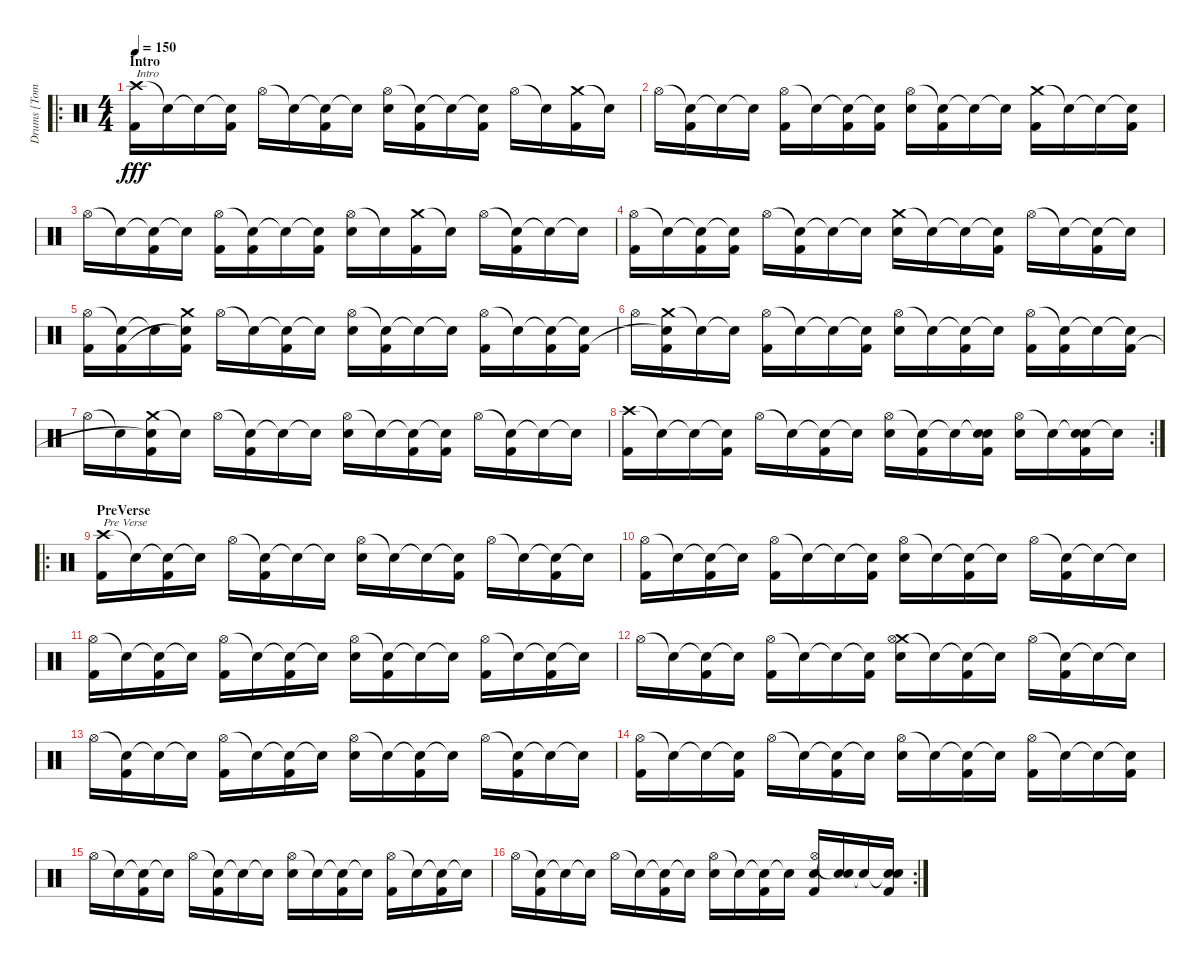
\track ("Drums [Tomas Haake]" "Drums [Tom") {instrument percussion}
\staff {score}
\articulation defaults
\ro
\ts (4 4)
\section ("" "Intro")
\tempo 150
\clef neutral
\ks c
("Crash high (hit)" "Kick (hit) 2").16{txt "Intro" dy fff} "Snare (hit)"{t}.16 "Snare (hit)"{t}.16 ("Snare (hit)"{t} "Kick (hit) 2").16 "Hi-Hat (open)".16 "Snare (hit)"{t}.16 ("Snare (hit)"{t} "Kick (hit) 2").16 "Snare (hit)"{t}.16 ("Hi-Hat (open)" "Electric Snare (hit)").16 ("Snare (hit)"{t} "Kick (hit) 2").16 "Snare (hit)"{t}.16 ("Snare (hit)"{t} "Kick (hit) 2").16 "Hi-Hat (open)".16 "Snare (hit)"{t}.16 ("Crash medium (hit)" "Kick (hit) 2").16 "Snare (hit)"{t}.16 |
"Hi-Hat (open)".16 ("Snare (hit)"{t} "Kick (hit) 2").16 "Snare (hit)"{t}.16 "Snare (hit)"{t}.16 ("Hi-Hat (open)" "Kick (hit) 2").16 "Snare (hit)"{t}.16 ("Snare (hit)"{t} "Kick (hit) 2").16 ("Snare (hit)"{t} "Kick (hit) 2").16 ("Hi-Hat (open)" "Electric Snare (hit)").16 ("Snare (hit)"{t} "Kick (hit) 2").16 "Snare (hit)"{t}.16 "Snare (hit)"{t}.16 ("Crash medium (hit)" "Kick (hit) 2").16 "Snare (hit)"{t}.16 "Snare (hit)"{t}.16 ("Snare (hit)"{t} "Kick (hit) 2").16 |
"Hi-Hat (open)".16 "Snare (hit)"{t}.16 ("Snare (hit)"{t} "Kick (hit) 2").16 "Snare (hit)"{t}.16 ("Hi-Hat (open)" "Kick (hit) 2").16 ("Snare (hit)"{t} "Kick (hit) 2").16 "Snare (hit)"{t}.16 ("Snare (hit)"{t} "Kick (hit) 2").16 ("Hi-Hat (open)" "Electric Snare (hit)").16 "Snare (hit)"{t}.16 ("Crash medium (hit)" "Kick (hit) 2").16 "Snare (hit)"{t}.16 "Hi-Hat (open)".16 ("Snare (hit)"{t} "Kick (hit) 2").16 "Snare (hit)"{t}.16 "Snare (hit)"{t}.16 |
("Hi-Hat (open)" "Kick (hit) 2").16 "Snare (hit)"{t}.16 ("Snare (hit)"{t} "Kick (hit) 2").16 ("Snare (hit)"{t} "Kick (hit) 2").16 "Hi-Hat (open)".16 ("Snare (hit)"{t} "Kick (hit) 2").16 "Snare (hit)"{t}.16 "Snare (hit)"{t}.16 ("Crash medium (hit)" "Electric Snare (hit)").16 "Snare (hit)"{t}.16 "Snare (hit)"{t}.16 ("Snare (hit)"{t} "Kick (hit) 2").16 "Hi-Hat (open)".16 "Snare (hit)"{t}.16 ("Snare (hit)"{t} "Kick (hit) 2").16 "Snare (hit)"{t}.16 |
("Hi-Hat (open)" "Kick (hit) 2").16 ("Snare (hit)"{t} "Kick (hit) 2").16 "Snare (hit)"{t}.16 ("Crash medium (hit)" "Snare (hit)"{t} "Kick (hit) 2").16 "Hi-Hat (open)".16 "Snare (hit)"{t}.16 ("Snare (hit)"{t} "Kick (hit) 2").16 "Snare (hit)"{t}.16 ("Hi-Hat (open)" "Electric Snare (hit)").16 ("Snare (hit)"{t} "Kick (hit) 2").16 "Snare (hit)"{t}.16 "Snare (hit)"{t}.16 ("Hi-Hat (open)" "Kick (hit) 2").16 "Snare (hit)"{t}.16 ("Snare (hit)"{t} "Kick (hit) 2").16 ("Snare (hit)"{t} "Kick (hit) 2").16 |
"Hi-Hat (open)".16 ("Crash medium (hit)" "Snare (hit)"{t} "Kick (hit) 2").16 "Snare (hit)"{t}.16 "Snare (hit)"{t}.16 ("Hi-Hat (open)" "Kick (hit) 2").16 "Snare (hit)"{t}.16 "Snare (hit)"{t}.16 ("Snare (hit)"{t} "Kick (hit) 2").16 ("Hi-Hat (open)" "Electric Snare (hit)").16 "Snare (hit)"{t}.16 ("Snare (hit)"{t} "Kick (hit) 2").16 "Snare (hit)"{t}.16 ("Hi-Hat (open)" "Kick (hit) 2").16 ("Snare (hit)"{t} "Kick (hit) 2").16 "Snare (hit)"{t}.16 ("Snare (hit)"{t} "Kick (hit) 2").16 |
"Hi-Hat (open)".16 "Snare (hit)"{t}.16 ("Crash medium (hit)" "Snare (hit)"{t} "Kick (hit) 2").16 "Snare (hit)"{t}.16 "Hi-Hat (open)".16 ("Snare (hit)"{t} "Kick (hit) 2").16 "Snare (hit)"{t}.16 "Snare (hit)"{t}.16 ("Hi-Hat (open)" "Electric Snare (hit)").16 "Snare (hit)"{t}.16 ("Snare (hit)"{t} "Kick (hit) 2").16 ("Snare (hit)"{t} "Kick (hit) 2").16 "Hi-Hat (open)".16 ("Snare (hit)"{t} "Kick (hit) 2").16 "Snare (hit)"{t}.16 "Snare (hit)"{t}.16 |
\rc 2
("Crash high (hit)" "Kick (hit) 2").16 "Snare (hit)"{t}.16 "Snare (hit)"{t}.16 ("Snare (hit)"{t} "Kick (hit) 2").16 "Hi-Hat (open)".16 "Snare (hit)"{t}.16 ("Snare (hit)"{t} "Kick (hit) 2").16 "Snare (hit)"{t}.16 ("Hi-Hat (open)" "Electric Snare (hit)").16 ("Snare (hit)"{t} "Kick (hit) 2").16 "Snare (hit)"{t}.16 ("Snare (hit)"{t} "Electric Snare (hit)" "Kick (hit) 2").16 ("Hi-Hat (open)" "Electric Snare (hit)").16 "Snare (hit)"{t}.16 ("Snare (hit)"{t} "Electric Snare (hit)" "Kick (hit) 2").16 "Snare (hit)"{t}.16 |
\ro
\section ("" "PreVerse")
("Crash high (hit)" "Kick (hit) 2").16{txt "Pre Verse"} "Snare (hit)"{t}.16 ("Snare (hit)"{t} "Kick (hit) 2").16 "Snare (hit)"{t}.16 "Hi-Hat (open)".16 ("Snare (hit)"{t} "Kick (hit) 2").16 "Snare (hit)"{t}.16 "Snare (hit)"{t}.16 ("Hi-Hat (open)" "Electric Snare (hit)").16 "Snare (hit)"{t}.16 "Snare (hit)"{t}.16 ("Snare (hit)"{t} "Kick (hit) 2").16 "Hi-Hat (open)".16 "Snare (hit)"{t}.16 ("Snare (hit)"{t} "Kick (hit) 2").16 "Snare (hit)"{t}.16 |
("Hi-Hat (open)" "Kick (hit) 2").16 "Snare (hit)"{t}.16 ("Snare (hit)"{t} "Kick (hit) 2").16 "Snare (hit)"{t}.16 ("Hi-Hat (open)" "Kick (hit) 2").16 "Snare (hit)"{t}.16 "Snare (hit)"{t}.16 ("Snare (hit)"{t} "Kick (hit) 2").16 ("Hi-Hat (open)" "Electric Snare (hit)").16 "Snare (hit)"{t}.16 ("Snare (hit)"{t} "Kick (hit) 2").16 "Snare (hit)"{t}.16 "Hi-Hat (open)".16 ("Snare (hit)"{t} "Kick (hit) 2").16 "Snare (hit)"{t}.16 "Snare (hit)"{t}.16 |
("Hi-Hat (open)" "Kick (hit) 2").16 "Snare (hit)"{t}.16 ("Snare (hit)"{t} "Kick (hit) 2").16 "Snare (hit)"{t}.16 ("Hi-Hat (open)" "Kick (hit) 2").16 "Snare (hit)"{t}.16 ("Snare (hit)"{t} "Kick (hit) 2").16 "Snare (hit)"{t}.16 ("Hi-Hat (open)" "Electric Snare (hit)").16 ("Snare (hit)"{t} "Kick (hit) 2").16 "Snare (hit)"{t}.16 "Snare (hit)"{t}.16 ("Hi-Hat (open)" "Kick (hit) 2").16 "Snare (hit)"{t}.16 ("Snare (hit)"{t} "Kick (hit) 2").16 "Snare (hit)"{t}.16 |
"Hi-Hat (open)".16 "Snare (hit)"{t}.16 ("Snare (hit)"{t} "Kick (hit) 2").16 "Snare (hit)"{t}.16 ("Hi-Hat (open)" "Kick (hit) 2").16 "Snare (hit)"{t}.16 "Snare (hit)"{t}.16 ("Snare (hit)"{t} "Kick (hit) 2").16 ("Crash medium (hit)" "Hi-Hat (open)" "Electric Snare (hit)").16 "Snare (hit)"{t}.16 ("Snare (hit)"{t} "Kick (hit) 2").16 "Snare (hit)"{t}.16 "Hi-Hat (open)".16 ("Snare (hit)"{t} "Kick (hit) 2").16 "Snare (hit)"{t}.16 "Snare (hit)"{t}.16 |
"Hi-Hat (open)".16 ("Snare (hit)"{t} "Kick (hit) 2").16 "Snare (hit)"{t}.16 "Snare (hit)"{t}.16 ("Hi-Hat (open)" "Kick (hit) 2").16 "Snare (hit)"{t}.16 ("Snare (hit)"{t} "Kick (hit) 2").16 "Snare (hit)"{t}.16 ("Hi-Hat (open)" "Electric Snare (hit)").16 "Snare (hit)"{t}.16 ("Snare (hit)"{t} "Kick (hit) 2").16 "Snare (hit)"{t}.16 "Hi-Hat (open)".16 ("Snare (hit)"{t} "Kick (hit) 2").16 "Snare (hit)"{t}.16 "Snare (hit)"{t}.16 |
("Hi-Hat (open)" "Kick (hit) 2").16 "Snare (hit)"{t}.16 "Snare (hit)"{t}.16 ("Snare (hit)"{t} "Kick (hit) 2").16 "Hi-Hat (open)".16 "Snare (hit)"{t}.16 ("Snare (hit)"{t} "Kick (hit) 2").16 "Snare (hit)"{t}.16 ("Hi-Hat (open)" "Electric Snare (hit)").16 "Snare (hit)"{t}.16 ("Snare (hit)"{t} "Kick (hit) 2").16 "Snare (hit)"{t}.16 ("Hi-Hat (open)" "Kick (hit) 2").16 "Snare (hit)"{t}.16 "Snare (hit)"{t}.16 ("Snare (hit)"{t} "Kick (hit) 2").16 |
"Hi-Hat (open)".16 "Snare (hit)"{t}.16 ("Snare (hit)"{t} "Kick (hit) 2").16 "Snare (hit)"{t}.16 "Hi-Hat (open)".16 ("Snare (hit)"{t} "Kick (hit) 2").16 "Snare (hit)"{t}.16 "Snare (hit)"{t}.16 ("Hi-Hat (open)" "Electric Snare (hit)").16 "Snare (hit)"{t}.16 ("Snare (hit)"{t} "Kick (hit) 2").16 "Snare (hit)"{t}.16 ("Hi-Hat (open)" "Kick (hit) 2").16 "Snare (hit)"{t}.16 ("Snare (hit)"{t} "Kick (hit) 2").16 "Snare (hit)"{t}.16 |
\rc 2 "Hi-Hat (open)".16
("Snare (hit)"{t} "Kick (hit) 2").16 "Snare (hit)"{t}.16 "Snare (hit)"{t}.16 "Hi-Hat (open)".16 "Snare (hit)"{t}.16 ("Snare (hit)"{t} "Kick (hit) 2").16 "Snare (hit)"{t}.16 ("Hi-Hat (open)" "Electric Snare (hit)").16 "Snare (hit)"{t}.16 ("Snare (hit)"{t} "Kick (hit) 2").16 "Snare (hit)"{t}.16 ("Hi-Hat (open)" "Electric Snare (hit)" "Kick (hit) 2").16 ("Snare (hit)"{t} "Electric Snare (hit)").16 "Snare (hit)"{t}.16 ("Snare (hit)"{t} "Electric Snare (hit)" "Kick (hit) 2").16
